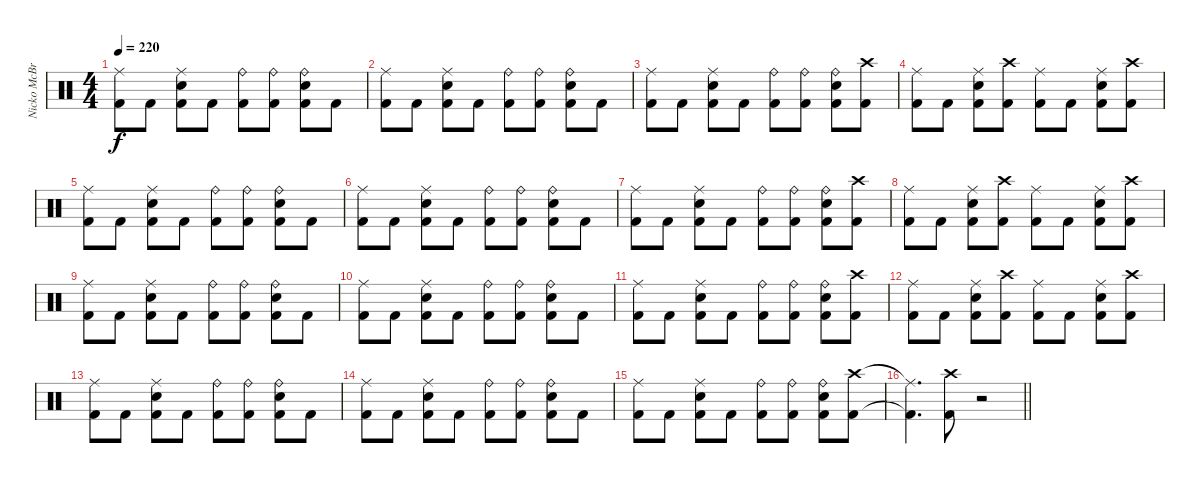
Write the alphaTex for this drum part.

\track ("Nicko McBrain" "Nicko McBr") {instrument percussion}
\staff {score}
\articulation defaults
\ts (4 4)
\tempo 220
\clef neutral
\ks c
("Ride (middle)" "Kick (hit) 2").8{dy f} "Kick (hit) 2".8 ("Ride (middle)" "Electric Snare (hit)" "Kick (hit) 2").8 "Kick (hit) 2".8 ("Ride (bell)" "Kick (hit) 2").8 ("Ride (bell)" "Kick (hit) 2").8 ("Ride (bell)" "Electric Snare (hit)" "Kick (hit) 2").8 "Kick (hit) 2".8 |
("Ride (middle)" "Kick (hit) 2").8 "Kick (hit) 2".8 ("Ride (middle)" "Electric Snare (hit)" "Kick (hit) 2").8 "Kick (hit) 2".8 ("Ride (bell)" "Kick (hit) 2").8 ("Ride (bell)" "Kick (hit) 2").8 ("Ride (bell)" "Electric Snare (hit)" "Kick (hit) 2").8 "Kick (hit) 2".8 |
("Ride (middle)" "Kick (hit) 2").8 "Kick (hit) 2".8 ("Ride (middle)" "Electric Snare (hit)" "Kick (hit) 2").8 "Kick (hit) 2".8 ("Ride (bell)" "Kick (hit) 2").8 ("Ride (bell)" "Kick (hit) 2").8 ("Ride (bell)" "Electric Snare (hit)" "Kick (hit) 2").8 ("Crash high (hit)" "Kick (hit) 2").8 |
("Ride (middle)" "Kick (hit) 2").8 "Kick (hit) 2".8 ("Ride (middle)" "Electric Snare (hit)" "Kick (hit) 2").8 ("Crash high (hit)" "Kick (hit) 2").8 ("Ride (middle)" "Kick (hit) 2").8 "Kick (hit) 2".8 ("Ride (middle)" "Electric Snare (hit)" "Kick (hit) 2").8 ("Crash high (hit)" "Kick (hit) 2").8 |
("Ride (middle)" "Kick (hit) 2").8 "Kick (hit) 2".8 ("Ride (middle)" "Electric Snare (hit)" "Kick (hit) 2").8 "Kick (hit) 2".8 ("Ride (bell)" "Kick (hit) 2").8 ("Ride (bell)" "Kick (hit) 2").8 ("Ride (bell)" "Electric Snare (hit)" "Kick (hit) 2").8 "Kick (hit) 2".8 |
("Ride (middle)" "Kick (hit) 2").8 "Kick (hit) 2".8 ("Ride (middle)" "Electric Snare (hit)" "Kick (hit) 2").8 "Kick (hit) 2".8 ("Ride (bell)" "Kick (hit) 2").8 ("Ride (bell)" "Kick (hit) 2").8 ("Ride (bell)" "Electric Snare (hit)" "Kick (hit) 2").8 "Kick (hit) 2".8 |
("Ride (middle)" "Kick (hit) 2").8 "Kick (hit) 2".8 ("Ride (middle)" "Electric Snare (hit)" "Kick (hit) 2").8 "Kick (hit) 2".8 ("Ride (bell)" "Kick (hit) 2").8 ("Ride (bell)" "Kick (hit) 2").8 ("Ride (bell)" "Electric Snare (hit)" "Kick (hit) 2").8 ("Crash high (hit)" "Kick (hit) 2").8 |
("Ride (middle)" "Kick (hit) 2").8 "Kick (hit) 2".8 ("Ride (middle)" "Electric Snare (hit)" "Kick (hit) 2").8 ("Crash high (hit)" "Kick (hit) 2").8 ("Ride (middle)" "Kick (hit) 2").8 "Kick (hit) 2".8 ("Ride (middle)" "Electric Snare (hit)" "Kick (hit) 2").8 ("Crash high (hit)" "Kick (hit) 2").8 |
("Ride (middle)" "Kick (hit) 2").8 "Kick (hit) 2".8 ("Ride (middle)" "Electric Snare (hit)" "Kick (hit) 2").8 "Kick (hit) 2".8 ("Ride (bell)" "Kick (hit) 2").8 ("Ride (bell)" "Kick (hit) 2").8 ("Ride (bell)" "Electric Snare (hit)" "Kick (hit) 2").8 "Kick (hit) 2".8 |
("Ride (middle)" "Kick (hit) 2").8 "Kick (hit) 2".8 ("Ride (middle)" "Electric Snare (hit)" "Kick (hit) 2").8 "Kick (hit) 2".8 ("Ride (bell)" "Kick (hit) 2").8 ("Ride (bell)" "Kick (hit) 2").8 ("Ride (bell)" "Electric Snare (hit)" "Kick (hit) 2").8 "Kick (hit) 2".8 |
("Ride (middle)" "Kick (hit) 2").8 "Kick (hit) 2".8 ("Ride (middle)" "Electric Snare (hit)" "Kick (hit) 2").8 "Kick (hit) 2".8 ("Ride (bell)" "Kick (hit) 2").8 ("Ride (bell)" "Kick (hit) 2").8 ("Ride (bell)" "Electric Snare (hit)" "Kick (hit) 2").8 ("Crash high (hit)" "Kick (hit) 2").8 |
("Ride (middle)" "Kick (hit) 2").8 "Kick (hit) 2".8 ("Ride (middle)" "Electric Snare (hit)" "Kick (hit) 2").8 ("Crash high (hit)" "Kick (hit) 2").8 ("Ride (middle)" "Kick (hit) 2").8 "Kick (hit) 2".8 ("Ride (middle)" "Electric Snare (hit)" "Kick (hit) 2").8 ("Crash high (hit)" "Kick (hit) 2").8 |
("Ride (middle)" "Kick (hit) 2").8 "Kick (hit) 2".8 ("Ride (middle)" "Electric Snare (hit)" "Kick (hit) 2").8 "Kick (hit) 2".8 ("Ride (bell)" "Kick (hit) 2").8 ("Ride (bell)" "Kick (hit) 2").8 ("Ride (bell)" "Electric Snare (hit)" "Kick (hit) 2").8 "Kick (hit) 2".8 |
("Ride (middle)" "Kick (hit) 2").8 "Kick (hit) 2".8 ("Ride (middle)" "Electric Snare (hit)" "Kick (hit) 2").8 "Kick (hit) 2".8 ("Ride (bell)" "Kick (hit) 2").8 ("Ride (bell)" "Kick (hit) 2").8 ("Ride (bell)" "Electric Snare (hit)" "Kick (hit) 2").8 "Kick (hit) 2".8 |
("Ride (middle)" "Kick (hit) 2").8 "Kick (hit) 2".8 ("Ride (middle)" "Electric Snare (hit)" "Kick (hit) 2").8 "Kick (hit) 2".8 ("Ride (bell)" "Kick (hit) 2").8 ("Ride (bell)" "Kick (hit) 2").8 ("Ride (bell)" "Electric Snare (hit)" "Kick (hit) 2").8 ("Crash high (hit)" "Kick (hit) 2").8 |
\barLineRight lightlight
("Ride (middle)"{t} "Kick (hit) 2"{t}).4{d} ("Crash high (hit)" "Kick (hit) 2").8 r.2
